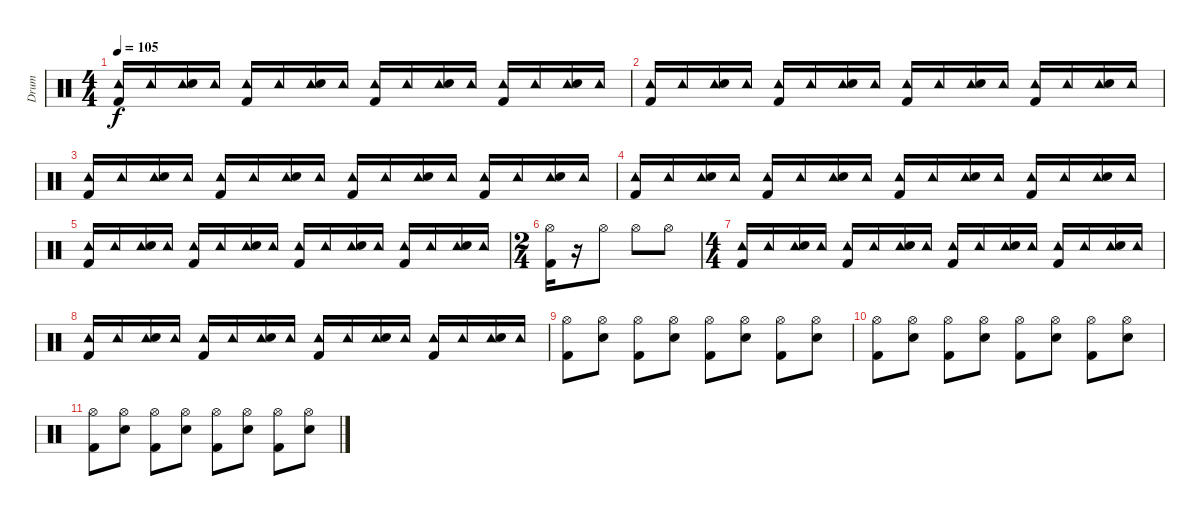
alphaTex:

\track ("Drum" "Drum") {instrument percussion}
\staff {score}
\articulation defaults
\ts (4 4)
\tempo 105
\clef neutral
\ks c
("Tambourine (hit)" "Kick (hit) 2").16{dy f} "Tambourine (hit)".16 ("Tambourine (hit)" "Electric Snare (hit)").16 "Tambourine (hit)".16 ("Tambourine (hit)" "Kick (hit) 2").16 "Tambourine (hit)".16 ("Tambourine (hit)" "Electric Snare (hit)").16 "Tambourine (hit)".16 ("Tambourine (hit)" "Kick (hit) 2").16 "Tambourine (hit)".16 ("Tambourine (hit)" "Electric Snare (hit)").16 "Tambourine (hit)".16 ("Tambourine (hit)" "Kick (hit) 2").16 "Tambourine (hit)".16 ("Tambourine (hit)" "Electric Snare (hit)").16 "Tambourine (hit)".16 |
("Tambourine (hit)" "Kick (hit) 2").16 "Tambourine (hit)".16 ("Tambourine (hit)" "Electric Snare (hit)").16 "Tambourine (hit)".16 ("Tambourine (hit)" "Kick (hit) 2").16 "Tambourine (hit)".16 ("Tambourine (hit)" "Electric Snare (hit)").16 "Tambourine (hit)".16 ("Tambourine (hit)" "Kick (hit) 2").16 "Tambourine (hit)".16 ("Tambourine (hit)" "Electric Snare (hit)").16 "Tambourine (hit)".16 ("Tambourine (hit)" "Kick (hit) 2").16 "Tambourine (hit)".16 ("Tambourine (hit)" "Electric Snare (hit)").16 "Tambourine (hit)".16 |
("Tambourine (hit)" "Kick (hit) 2").16 "Tambourine (hit)".16 ("Tambourine (hit)" "Electric Snare (hit)").16 "Tambourine (hit)".16 ("Tambourine (hit)" "Kick (hit) 2").16 "Tambourine (hit)".16 ("Tambourine (hit)" "Electric Snare (hit)").16 "Tambourine (hit)".16 ("Tambourine (hit)" "Kick (hit) 2").16 "Tambourine (hit)".16 ("Tambourine (hit)" "Electric Snare (hit)").16 "Tambourine (hit)".16 ("Tambourine (hit)" "Kick (hit) 2").16 "Tambourine (hit)".16 ("Tambourine (hit)" "Electric Snare (hit)").16 "Tambourine (hit)".16 |
("Tambourine (hit)" "Kick (hit) 2").16 "Tambourine (hit)".16 ("Tambourine (hit)" "Electric Snare (hit)").16 "Tambourine (hit)".16 ("Tambourine (hit)" "Kick (hit) 2").16 "Tambourine (hit)".16 ("Tambourine (hit)" "Electric Snare (hit)").16 "Tambourine (hit)".16 ("Tambourine (hit)" "Kick (hit) 2").16 "Tambourine (hit)".16 ("Tambourine (hit)" "Electric Snare (hit)").16 "Tambourine (hit)".16 ("Tambourine (hit)" "Kick (hit) 2").16 "Tambourine (hit)".16 ("Tambourine (hit)" "Electric Snare (hit)").16 "Tambourine (hit)".16 |
("Tambourine (hit)" "Kick (hit) 2").16 "Tambourine (hit)".16 ("Tambourine (hit)" "Electric Snare (hit)").16 "Tambourine (hit)".16 ("Tambourine (hit)" "Kick (hit) 2").16 "Tambourine (hit)".16 ("Tambourine (hit)" "Electric Snare (hit)").16 "Tambourine (hit)".16 ("Tambourine (hit)" "Kick (hit) 2").16 "Tambourine (hit)".16 ("Tambourine (hit)" "Electric Snare (hit)").16 "Tambourine (hit)".16 ("Tambourine (hit)" "Kick (hit) 2").16 "Tambourine (hit)".16 ("Tambourine (hit)" "Electric Snare (hit)").16 "Tambourine (hit)".16 |
\ts (2 4)
("Hi-Hat (open)" "Kick (hit) 2").16 r.16 "Hi-Hat (open)".8 "Hi-Hat (open)".8 "Hi-Hat (open)".8 |
\ts (4 4)
("Tambourine (hit)" "Kick (hit) 2").16 "Tambourine (hit)".16 ("Tambourine (hit)" "Electric Snare (hit)").16 "Tambourine (hit)".16 ("Tambourine (hit)" "Kick (hit) 2").16 "Tambourine (hit)".16 ("Tambourine (hit)" "Electric Snare (hit)").16 "Tambourine (hit)".16 ("Tambourine (hit)" "Kick (hit) 2").16 "Tambourine (hit)".16 ("Tambourine (hit)" "Electric Snare (hit)").16 "Tambourine (hit)".16 ("Tambourine (hit)" "Kick (hit) 2").16 "Tambourine (hit)".16 ("Tambourine (hit)" "Electric Snare (hit)").16 "Tambourine (hit)".16 |
("Tambourine (hit)" "Kick (hit) 2").16 "Tambourine (hit)".16 ("Tambourine (hit)" "Electric Snare (hit)").16 "Tambourine (hit)".16 ("Tambourine (hit)" "Kick (hit) 2").16 "Tambourine (hit)".16 ("Tambourine (hit)" "Electric Snare (hit)").16 "Tambourine (hit)".16 ("Tambourine (hit)" "Kick (hit) 2").16 "Tambourine (hit)".16 ("Tambourine (hit)" "Electric Snare (hit)").16 "Tambourine (hit)".16 ("Tambourine (hit)" "Kick (hit) 2").16 "Tambourine (hit)".16 ("Tambourine (hit)" "Electric Snare (hit)").16 "Tambourine (hit)".16 |
("Hi-Hat (open)" "Kick (hit) 2").8 ("Hi-Hat (open)" "Electric Snare (hit)").8 ("Hi-Hat (open)" "Kick (hit) 2").8 ("Hi-Hat (open)" "Electric Snare (hit)").8 ("Hi-Hat (open)" "Kick (hit) 2").8 ("Hi-Hat (open)" "Electric Snare (hit)").8 ("Hi-Hat (open)" "Kick (hit) 2").8 ("Hi-Hat (open)" "Electric Snare (hit)").8 |
("Hi-Hat (open)" "Kick (hit) 2").8 ("Hi-Hat (open)" "Electric Snare (hit)").8 ("Hi-Hat (open)" "Kick (hit) 2").8 ("Hi-Hat (open)" "Electric Snare (hit)").8 ("Hi-Hat (open)" "Kick (hit) 2").8 ("Hi-Hat (open)" "Electric Snare (hit)").8 ("Hi-Hat (open)" "Kick (hit) 2").8 ("Hi-Hat (open)" "Electric Snare (hit)").8 |
("Hi-Hat (open)" "Kick (hit) 2").8 ("Hi-Hat (open)" "Electric Snare (hit)").8 ("Hi-Hat (open)" "Kick (hit) 2").8 ("Hi-Hat (open)" "Electric Snare (hit)").8 ("Hi-Hat (open)" "Kick (hit) 2").8 ("Hi-Hat (open)" "Electric Snare (hit)").8 ("Hi-Hat (open)" "Kick (hit) 2").8 ("Hi-Hat (open)" "Electric Snare (hit)").8
